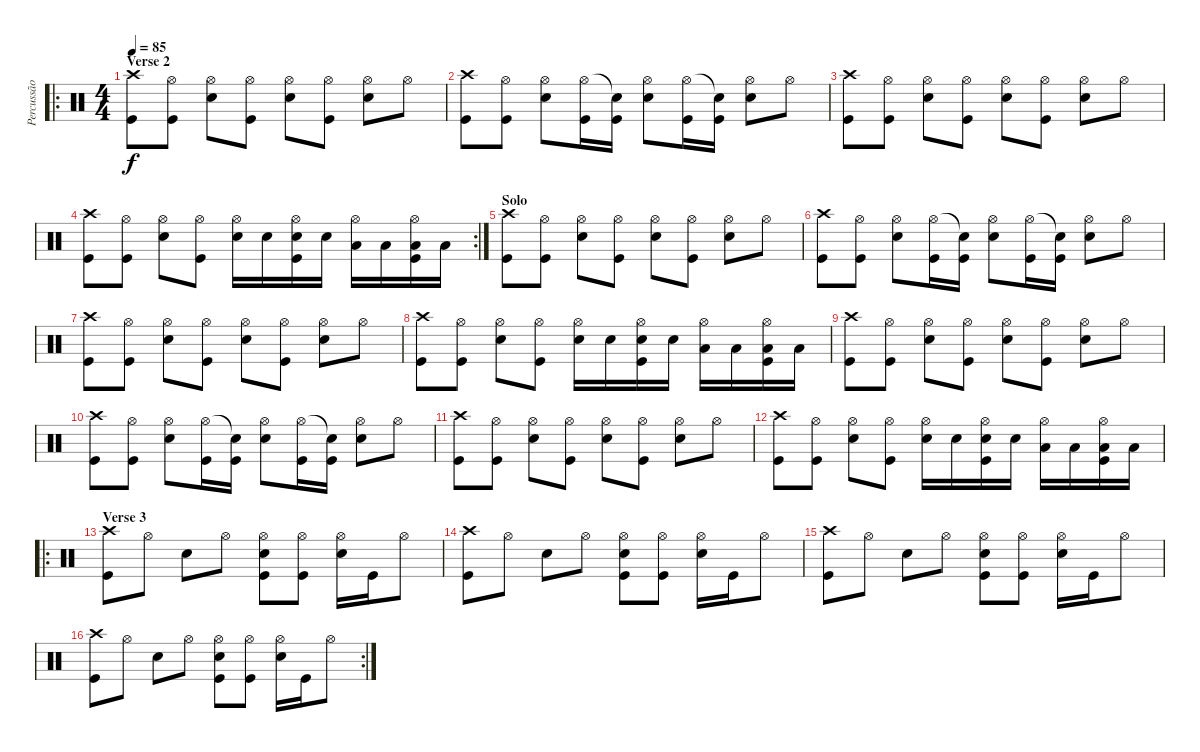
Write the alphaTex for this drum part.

\track ("Percussão" "Percussão") {instrument percussion}
\staff {score}
\articulation defaults
\ro
\ts (4 4)
\section ("" "Verse 2")
\tempo 85
\clef neutral
\ks c
("Crash high (hit)" "Kick (hit)").8{dy f} ("Hi-Hat (open)" "Kick (hit)").8 ("Hi-Hat (open)" "Snare (hit) 2").8 ("Hi-Hat (open)" "Kick (hit)").8 ("Hi-Hat (open)" "Snare (hit) 2").8 ("Hi-Hat (open)" "Kick (hit)").8 ("Hi-Hat (open)" "Snare (hit) 2").8 "Hi-Hat (open)".8 |
("Crash high (hit)" "Kick (hit)").8 ("Hi-Hat (open)" "Kick (hit)").8 ("Hi-Hat (open)" "Snare (hit) 2").8 ("Hi-Hat (open)" "Kick (hit)").16 ("Snare (hit)"{t} "Kick (hit)").16 ("Hi-Hat (open)" "Snare (hit) 2").8 ("Hi-Hat (open)" "Kick (hit)").16 ("Snare (hit)"{t} "Kick (hit)").16 ("Hi-Hat (open)" "Snare (hit) 2").8 "Hi-Hat (open)".8 |
("Crash high (hit)" "Kick (hit)").8 ("Hi-Hat (open)" "Kick (hit)").8 ("Hi-Hat (open)" "Snare (hit) 2").8 ("Hi-Hat (open)" "Kick (hit)").8 ("Hi-Hat (open)" "Snare (hit) 2").8 ("Hi-Hat (open)" "Kick (hit)").8 ("Hi-Hat (open)" "Snare (hit) 2").8 "Hi-Hat (open)".8 |
\rc 2
("Crash high (hit)" "Kick (hit)").8 ("Hi-Hat (open)" "Kick (hit)").8 ("Hi-Hat (open)" "Snare (hit) 2").8 ("Hi-Hat (open)" "Kick (hit)").8 ("Hi-Hat (open)" "Snare (hit) 2").16 "Snare (hit) 2".16 ("Hi-Hat (open)" "Snare (hit) 2" "Kick (hit)").16 "Snare (hit) 2".16 ("Hi-Hat (open)" "Low Floor Tom (hit)").16 "Low Floor Tom (hit)".16 ("Hi-Hat (open)" "Low Floor Tom (hit)" "Kick (hit)").16 "Low Floor Tom (hit)".16 |
\section ("" "Solo")
("Crash high (hit)" "Kick (hit)").8 ("Hi-Hat (open)" "Kick (hit)").8 ("Hi-Hat (open)" "Snare (hit) 2").8 ("Hi-Hat (open)" "Kick (hit)").8 ("Hi-Hat (open)" "Snare (hit) 2").8 ("Hi-Hat (open)" "Kick (hit)").8 ("Hi-Hat (open)" "Snare (hit) 2").8 "Hi-Hat (open)".8 |
("Crash high (hit)" "Kick (hit)").8 ("Hi-Hat (open)" "Kick (hit)").8 ("Hi-Hat (open)" "Snare (hit) 2").8 ("Hi-Hat (open)" "Kick (hit)").16 ("Snare (hit)"{t} "Kick (hit)").16 ("Hi-Hat (open)" "Snare (hit) 2").8 ("Hi-Hat (open)" "Kick (hit)").16 ("Snare (hit)"{t} "Kick (hit)").16 ("Hi-Hat (open)" "Snare (hit) 2").8 "Hi-Hat (open)".8 |
("Crash high (hit)" "Kick (hit)").8 ("Hi-Hat (open)" "Kick (hit)").8 ("Hi-Hat (open)" "Snare (hit) 2").8 ("Hi-Hat (open)" "Kick (hit)").8 ("Hi-Hat (open)" "Snare (hit) 2").8 ("Hi-Hat (open)" "Kick (hit)").8 ("Hi-Hat (open)" "Snare (hit) 2").8 "Hi-Hat (open)".8 |
("Crash high (hit)" "Kick (hit)").8 ("Hi-Hat (open)" "Kick (hit)").8 ("Hi-Hat (open)" "Snare (hit) 2").8 ("Hi-Hat (open)" "Kick (hit)").8 ("Hi-Hat (open)" "Snare (hit) 2").16 "Snare (hit) 2".16 ("Hi-Hat (open)" "Snare (hit) 2" "Kick (hit)").16 "Snare (hit) 2".16 ("Hi-Hat (open)" "Low Floor Tom (hit)").16 "Low Floor Tom (hit)".16 ("Hi-Hat (open)" "Low Floor Tom (hit)" "Kick (hit)").16 "Low Floor Tom (hit)".16 |
("Crash high (hit)" "Kick (hit)").8 ("Hi-Hat (open)" "Kick (hit)").8 ("Hi-Hat (open)" "Snare (hit) 2").8 ("Hi-Hat (open)" "Kick (hit)").8 ("Hi-Hat (open)" "Snare (hit) 2").8 ("Hi-Hat (open)" "Kick (hit)").8 ("Hi-Hat (open)" "Snare (hit) 2").8 "Hi-Hat (open)".8 |
("Crash high (hit)" "Kick (hit)").8 ("Hi-Hat (open)" "Kick (hit)").8 ("Hi-Hat (open)" "Snare (hit) 2").8 ("Hi-Hat (open)" "Kick (hit)").16 ("Snare (hit)"{t} "Kick (hit)").16 ("Hi-Hat (open)" "Snare (hit) 2").8 ("Hi-Hat (open)" "Kick (hit)").16 ("Snare (hit)"{t} "Kick (hit)").16 ("Hi-Hat (open)" "Snare (hit) 2").8 "Hi-Hat (open)".8 |
("Crash high (hit)" "Kick (hit)").8 ("Hi-Hat (open)" "Kick (hit)").8 ("Hi-Hat (open)" "Snare (hit) 2").8 ("Hi-Hat (open)" "Kick (hit)").8 ("Hi-Hat (open)" "Snare (hit) 2").8 ("Hi-Hat (open)" "Kick (hit)").8 ("Hi-Hat (open)" "Snare (hit) 2").8 "Hi-Hat (open)".8 |
("Crash high (hit)" "Kick (hit)").8 ("Hi-Hat (open)" "Kick (hit)").8 ("Hi-Hat (open)" "Snare (hit) 2").8 ("Hi-Hat (open)" "Kick (hit)").8 ("Hi-Hat (open)" "Snare (hit) 2").16 "Snare (hit) 2".16 ("Hi-Hat (open)" "Snare (hit) 2" "Kick (hit)").16 "Snare (hit) 2".16 ("Hi-Hat (open)" "Low Floor Tom (hit)").16 "Low Floor Tom (hit)".16 ("Hi-Hat (open)" "Low Floor Tom (hit)" "Kick (hit)").16 "Low Floor Tom (hit)".16 |
\ro
\section ("" "Verse 3")
("Crash high (hit)" "Kick (hit)").8 "Hi-Hat (open)".8 "Snare (hit) 2".8 "Hi-Hat (open)".8 ("Hi-Hat (open)" "Snare (hit) 2" "Kick (hit)").8 ("Hi-Hat (open)" "Kick (hit)").8 ("Hi-Hat (open)" "Snare (hit) 2").16 "Kick (hit)".16 "Hi-Hat (open)".8 |
("Crash high (hit)" "Kick (hit)").8 "Hi-Hat (open)".8 "Snare (hit) 2".8 "Hi-Hat (open)".8 ("Hi-Hat (open)" "Snare (hit) 2" "Kick (hit)").8 ("Hi-Hat (open)" "Kick (hit)").8 ("Hi-Hat (open)" "Snare (hit) 2").16 "Kick (hit)".16 "Hi-Hat (open)".8 |
("Crash high (hit)" "Kick (hit)").8 "Hi-Hat (open)".8 "Snare (hit) 2".8 "Hi-Hat (open)".8 ("Hi-Hat (open)" "Snare (hit) 2" "Kick (hit)").8 ("Hi-Hat (open)" "Kick (hit)").8 ("Hi-Hat (open)" "Snare (hit) 2").16 "Kick (hit)".16 "Hi-Hat (open)".8 |
\rc 2
("Crash high (hit)" "Kick (hit)").8 "Hi-Hat (open)".8 "Snare (hit) 2".8 "Hi-Hat (open)".8 ("Hi-Hat (open)" "Snare (hit) 2" "Kick (hit)").8 ("Hi-Hat (open)" "Kick (hit)").8 ("Hi-Hat (open)" "Snare (hit) 2").16 "Kick (hit)".16 "Hi-Hat (open)".8
